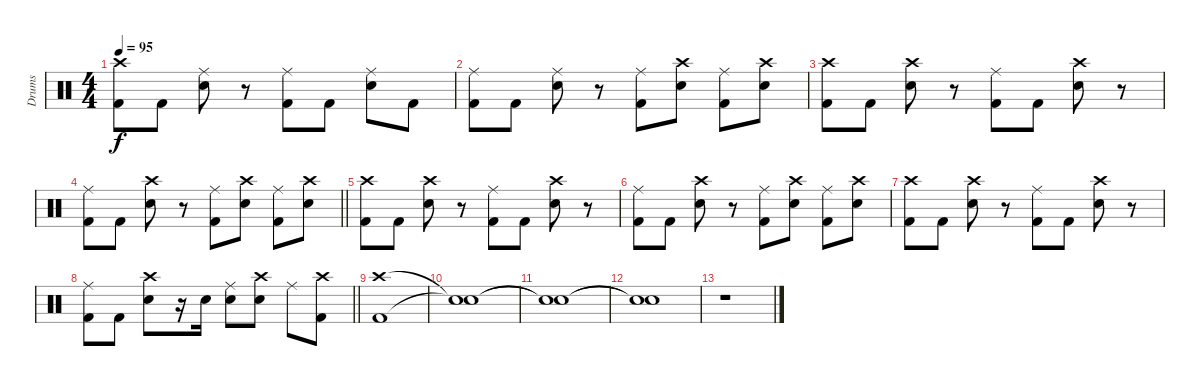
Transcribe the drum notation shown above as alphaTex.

\track ("Drums" "Drums") {instrument percussion}
\staff {score}
\articulation defaults
\ts (4 4)
\tempo 95
\clef neutral
\ks c
("Crash high (hit)" "Kick (hit) 2").8{dy f} "Kick (hit) 2".8 ("Ride (middle)" "Snare (hit) 2").8 r.8 ("Ride (middle)" "Kick (hit) 2").8 "Kick (hit) 2".8 ("Ride (middle)" "Snare (hit) 2").8 "Kick (hit) 2".8 |
("Ride (middle)" "Kick (hit) 2").8 "Kick (hit) 2".8 ("Ride (middle)" "Snare (hit) 2").8 r.8 ("Ride (middle)" "Kick (hit) 2").8 ("Crash high (hit)" "Snare (hit) 2").8 ("Ride (middle)" "Kick (hit) 2").8 ("Crash high (hit)" "Snare (hit) 2").8 |
("Crash high (hit)" "Kick (hit) 2").8 "Kick (hit) 2".8 ("Crash high (hit)" "Snare (hit) 2").8 r.8 ("Ride (middle)" "Kick (hit) 2").8 "Kick (hit) 2".8 ("Crash high (hit)" "Snare (hit) 2").8 r.8 |
\barLineRight lightlight
("Ride (middle)" "Kick (hit) 2").8 "Kick (hit) 2".8 ("Crash high (hit)" "Snare (hit) 2").8 r.8 ("Ride (middle)" "Kick (hit) 2").8 ("Crash high (hit)" "Snare (hit) 2").8 ("Ride (middle)" "Kick (hit) 2").8 ("Crash high (hit)" "Snare (hit) 2").8 |
("Crash high (hit)" "Kick (hit) 2").8 "Kick (hit) 2".8 ("Crash high (hit)" "Snare (hit) 2").8 r.8 ("Ride (middle)" "Kick (hit) 2").8 "Kick (hit) 2".8 ("Crash high (hit)" "Snare (hit) 2").8 r.8 |
("Ride (middle)" "Kick (hit) 2").8 "Kick (hit) 2".8 ("Crash high (hit)" "Snare (hit) 2").8 r.8 ("Ride (middle)" "Kick (hit) 2").8 ("Crash high (hit)" "Snare (hit) 2").8 ("Ride (middle)" "Kick (hit) 2").8 ("Crash high (hit)" "Snare (hit) 2").8 |
("Crash high (hit)" "Kick (hit) 2").8 "Kick (hit) 2".8 ("Crash high (hit)" "Snare (hit) 2").8 r.8 ("Ride (middle)" "Kick (hit) 2").8 "Kick (hit) 2".8 ("Crash high (hit)" "Snare (hit) 2").8 r.8 |
\barLineRight lightlight
("Ride (middle)" "Kick (hit) 2").8 "Kick (hit) 2".8 ("Crash high (hit)" "Snare (hit) 2").8 r.16 "Snare (hit) 2".16 ("Ride (middle)" "Snare (hit) 2").8 ("Crash high (hit)" "Snare (hit) 2").8 "Ride (middle)".8 ("Crash high (hit)" "Kick (hit) 2").8 |
("Crash high (hit)" "Kick (hit) 2").1 |
("Snare (hit)"{t} "Snare (hit)"{t}).1 |
("Snare (hit)"{t} "Snare (hit)"{t}).1 |
("Snare (hit)"{t} "Snare (hit)"{t}).1 |
r.1
